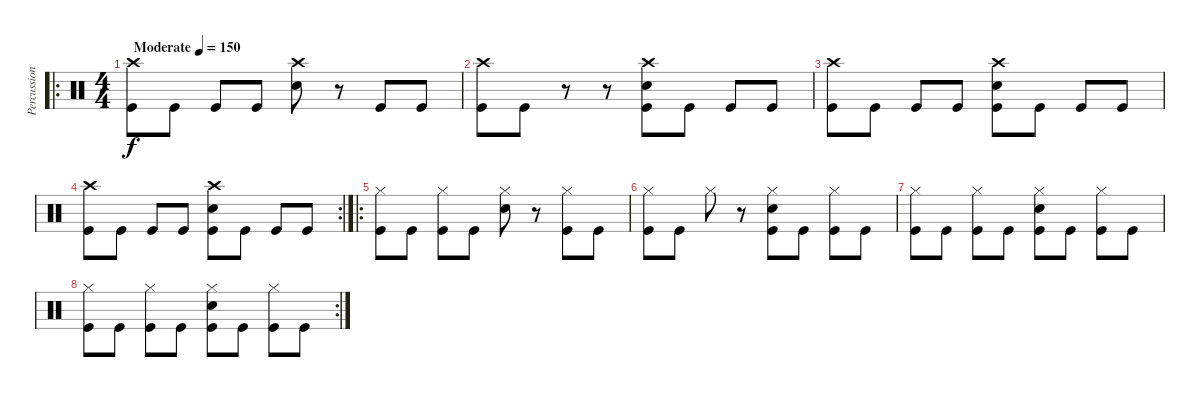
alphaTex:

\track ("Percussion" "Percussion") {instrument percussion}
\staff {score}
\articulation defaults
\ro
\ts (4 4)
\tempo (150 "Moderate")
\clef neutral
\ks c
("Crash high (hit)" "Kick (hit)").8{dy f} "Kick (hit)".8 "Kick (hit)".8 "Kick (hit)".8 ("Crash high (hit)" "Snare (hit) 2").8 r.8 "Kick (hit)".8 "Kick (hit)".8 |
("Crash high (hit)" "Kick (hit)").8 "Kick (hit)".8 r.8 r.8 ("Crash high (hit)" "Snare (hit) 2" "Kick (hit)").8 "Kick (hit)".8 "Kick (hit)".8 "Kick (hit)".8 |
("Crash high (hit)" "Kick (hit)").8 "Kick (hit)".8 "Kick (hit)".8 "Kick (hit)".8 ("Crash high (hit)" "Snare (hit) 2" "Kick (hit)").8 "Kick (hit)".8 "Kick (hit)".8 "Kick (hit)".8 |
\rc 2
("Crash high (hit)" "Kick (hit)").8 "Kick (hit)".8 "Kick (hit)".8 "Kick (hit)".8 ("Crash high (hit)" "Snare (hit) 2" "Kick (hit)").8 "Kick (hit)".8 "Kick (hit)".8 "Kick (hit)".8 |
\ro
("Hi-Hat (closed)" "Kick (hit)").8 "Kick (hit)".8 ("Hi-Hat (closed)" "Kick (hit)").8 "Kick (hit)".8 ("Hi-Hat (closed)" "Snare (hit) 2").8 r.8 ("Hi-Hat (closed)" "Kick (hit)").8 "Kick (hit)".8 |
("Hi-Hat (closed)" "Kick (hit)").8 "Kick (hit)".8 "Hi-Hat (closed)".8 r.8 ("Hi-Hat (closed)" "Snare (hit) 2" "Kick (hit)").8 "Kick (hit)".8 ("Hi-Hat (closed)" "Kick (hit)").8 "Kick (hit)".8 |
("Hi-Hat (closed)" "Kick (hit)").8 "Kick (hit)".8 ("Hi-Hat (closed)" "Kick (hit)").8 "Kick (hit)".8 ("Hi-Hat (closed)" "Snare (hit) 2" "Kick (hit)").8 "Kick (hit)".8 ("Hi-Hat (closed)" "Kick (hit)").8 "Kick (hit)".8 |
\rc 2
("Hi-Hat (closed)" "Kick (hit)").8 "Kick (hit)".8 ("Hi-Hat (closed)" "Kick (hit)").8 "Kick (hit)".8 ("Hi-Hat (closed)" "Snare (hit) 2" "Kick (hit)").8 "Kick (hit)".8 ("Hi-Hat (closed)" "Kick (hit)").8 "Kick (hit)".8
